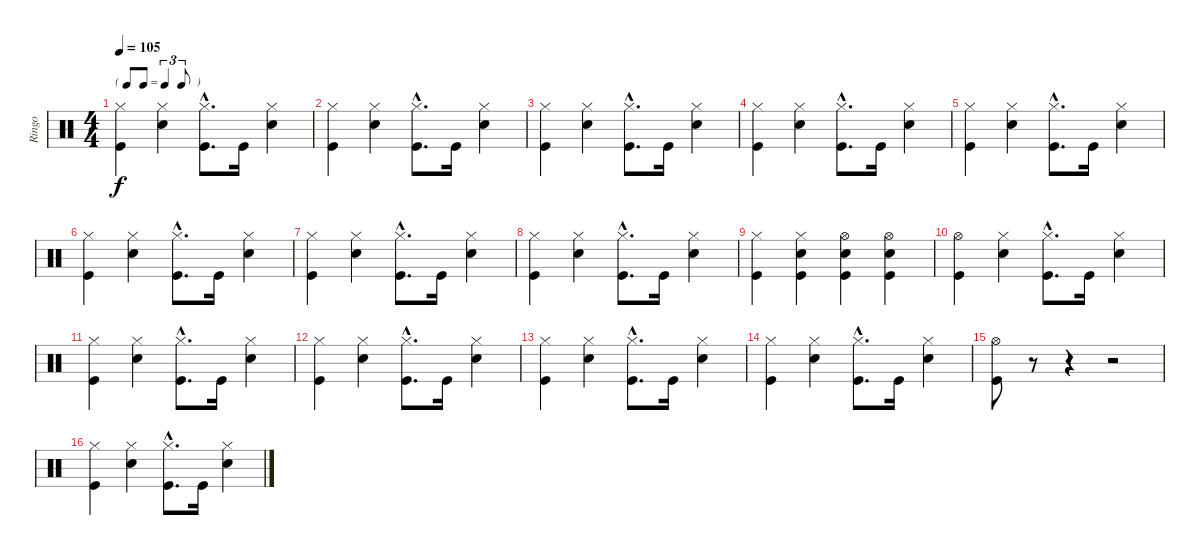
\track ("Ringo" "Ringo") {instrument percussion}
\staff {score}
\articulation defaults
\ts (4 4)
\tf triplet8th
\tempo 105
\clef neutral
\ks c
("Hi-Hat (closed)" "Kick (hit)").4{dy f} ("Hi-Hat (closed)" "Snare (hit) 2").4 ("Hi-Hat (closed)"{hac} "Kick (hit)"{hac}).8{d} "Kick (hit)".16 ("Hi-Hat (closed)" "Snare (hit) 2").4 |
("Hi-Hat (closed)" "Kick (hit)").4 ("Hi-Hat (closed)" "Snare (hit) 2").4 ("Hi-Hat (closed)"{hac} "Kick (hit)"{hac}).8{d} "Kick (hit)".16 ("Hi-Hat (closed)" "Snare (hit) 2").4 |
("Hi-Hat (closed)" "Kick (hit)").4 ("Hi-Hat (closed)" "Snare (hit) 2").4 ("Hi-Hat (closed)"{hac} "Kick (hit)"{hac}).8{d} "Kick (hit)".16 ("Hi-Hat (closed)" "Snare (hit) 2").4 |
("Hi-Hat (closed)" "Kick (hit)").4 ("Hi-Hat (closed)" "Snare (hit) 2").4 ("Hi-Hat (closed)"{hac} "Kick (hit)"{hac}).8{d} "Kick (hit)".16 ("Hi-Hat (closed)" "Snare (hit) 2").4 |
("Hi-Hat (closed)" "Kick (hit)").4 ("Hi-Hat (closed)" "Snare (hit) 2").4 ("Hi-Hat (closed)"{hac} "Kick (hit)"{hac}).8{d} "Kick (hit)".16 ("Hi-Hat (closed)" "Snare (hit) 2").4 |
("Hi-Hat (closed)" "Kick (hit)").4 ("Hi-Hat (closed)" "Snare (hit) 2").4 ("Hi-Hat (closed)"{hac} "Kick (hit)"{hac}).8{d} "Kick (hit)".16 ("Hi-Hat (closed)" "Snare (hit) 2").4 |
("Hi-Hat (closed)" "Kick (hit)").4 ("Hi-Hat (closed)" "Snare (hit) 2").4 ("Hi-Hat (closed)"{hac} "Kick (hit)"{hac}).8{d} "Kick (hit)".16 ("Hi-Hat (closed)" "Snare (hit) 2").4 |
("Hi-Hat (closed)" "Kick (hit)").4 ("Hi-Hat (closed)" "Snare (hit) 2").4 ("Hi-Hat (closed)"{hac} "Kick (hit)"{hac}).8{d} "Kick (hit)".16 ("Hi-Hat (closed)" "Snare (hit) 2").4 |
("Hi-Hat (closed)" "Kick (hit)").4 ("Hi-Hat (closed)" "Snare (hit) 2" "Kick (hit)").4 ("Hi-Hat (open)" "Snare (hit) 2" "Kick (hit)").4 ("Hi-Hat (open)" "Snare (hit) 2" "Kick (hit)").4 |
("Hi-Hat (open)" "Kick (hit)").4 ("Hi-Hat (closed)" "Snare (hit) 2").4 ("Hi-Hat (closed)"{hac} "Kick (hit)"{hac}).8{d} "Kick (hit)".16 ("Hi-Hat (closed)" "Snare (hit) 2").4 |
("Hi-Hat (closed)" "Kick (hit)").4 ("Hi-Hat (closed)" "Snare (hit) 2").4 ("Hi-Hat (closed)"{hac} "Kick (hit)"{hac}).8{d} "Kick (hit)".16 ("Hi-Hat (closed)" "Snare (hit) 2").4 |
("Hi-Hat (closed)" "Kick (hit)").4 ("Hi-Hat (closed)" "Snare (hit) 2").4 ("Hi-Hat (closed)"{hac} "Kick (hit)"{hac}).8{d} "Kick (hit)".16 ("Hi-Hat (closed)" "Snare (hit) 2").4 |
("Hi-Hat (closed)" "Kick (hit)").4 ("Hi-Hat (closed)" "Snare (hit) 2").4 ("Hi-Hat (closed)"{hac} "Kick (hit)"{hac}).8{d} "Kick (hit)".16 ("Hi-Hat (closed)" "Snare (hit) 2").4 |
("Hi-Hat (closed)" "Kick (hit)").4 ("Hi-Hat (closed)" "Snare (hit) 2").4 ("Hi-Hat (closed)"{hac} "Kick (hit)"{hac}).8{d} "Kick (hit)".16 ("Hi-Hat (closed)" "Snare (hit) 2").4 |
("Hi-Hat (open)" "Kick (hit)").8 r.8 r.4 r.2 |
("Hi-Hat (closed)" "Kick (hit)").4 ("Hi-Hat (closed)" "Snare (hit) 2").4 ("Hi-Hat (closed)"{hac} "Kick (hit)"{hac}).8{d} "Kick (hit)".16 ("Hi-Hat (closed)" "Snare (hit) 2").4
